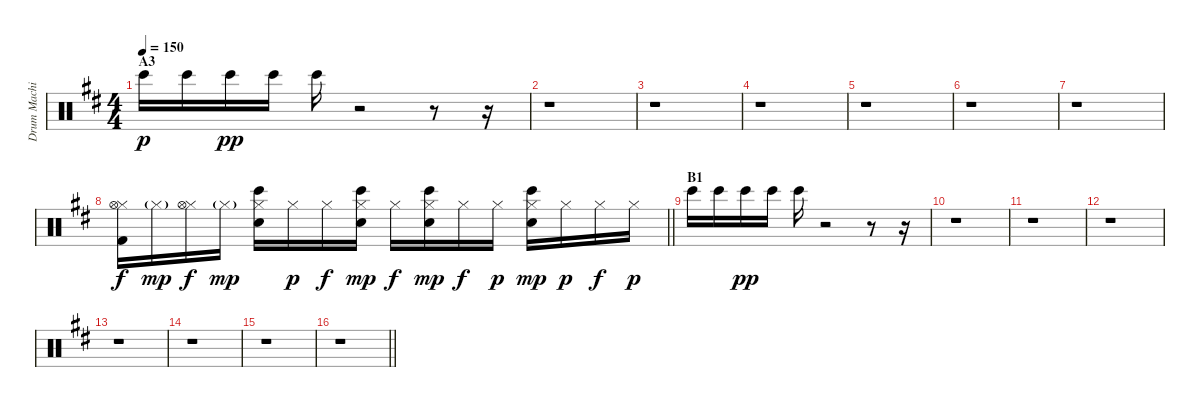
\track ("Drum Machine" "Drum Machi") {instrument percussion}
\staff {score}
\articulation defaults
\ts (4 4)
\section ("" "A3")
\tempo 150
\clef neutral
\ks d "Bongo High (hit)".16{dy p} "Bongo High (hit)".16 "Bongo High (hit)".16{dy pp} "Bongo High (hit)".16 "Bongo High (hit)".16
r.2 r.8 r.16 |
r.1 |
r.1 |
r.1 |
r.1 |
r.1 |
r.1 |
\barLineRight lightlight
("Hi-Hat (closed)" "Hi-Hat (open)" "Kick (hit) 2").16{dy f} "Hi-Hat (closed)"{g}.16{dy mp} ("Hi-Hat (closed)" "Hi-Hat (open)").16{dy f} "Hi-Hat (closed)"{g}.16{dy mp} ("Hi-Hat (closed)" "Bongo High (hit)" "Snare (hit) 2").16 "Hi-Hat (closed)".16{dy p} "Hi-Hat (closed)".16{dy f} ("Hi-Hat (closed)" "Bongo High (hit)" "Snare (hit) 2").16{dy mp} "Hi-Hat (closed)".16{dy f} ("Hi-Hat (closed)" "Bongo High (hit)" "Snare (hit) 2").16{dy mp} "Hi-Hat (closed)".16{dy f} "Hi-Hat (closed)".16{dy p} ("Hi-Hat (closed)" "Bongo High (hit)" "Snare (hit) 2").16{dy mp} "Hi-Hat (closed)".16{dy p} "Hi-Hat (closed)".16{dy f} "Hi-Hat (closed)".16{dy p} |
\section ("" "B1")
"Bongo High (hit)".16 "Bongo High (hit)".16 "Bongo High (hit)".16{dy pp} "Bongo High (hit)".16 "Bongo High (hit)".16 r.2 r.8 r.16 |
r.1 |
r.1 |
r.1 |
r.1 |
r.1 |
r.1 |
\barLineRight lightlight
r.1
